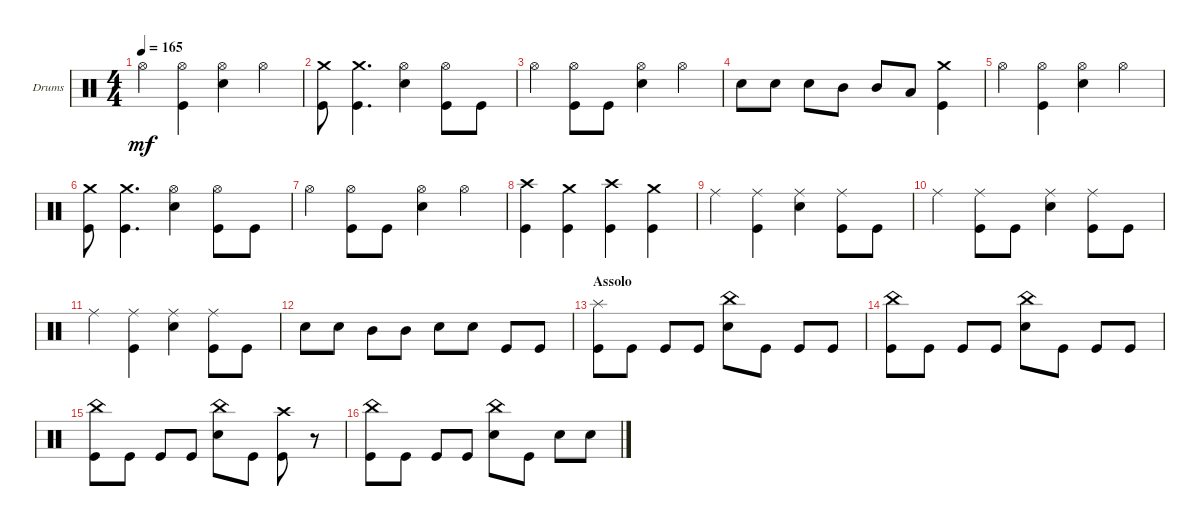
\bracketExtendMode groupsimilarinstruments
\firstSystemTrackNameOrientation horizontal
\otherSystemsTrackNameOrientation horizontal
\track ("Drums" "Drums") {solo instrument percussion}
\staff {score}
\articulation defaults
\ts (4 4)
\tempo 165
\clef neutral
\ks c "Hi-Hat (open)".4{dy mf}
("Kick (hit)" "Hi-Hat (open)").4 ("Snare (hit) 2" "Hi-Hat (open)").4 "Hi-Hat (open)".4 |
("Kick (hit)" "Crash medium (hit)").8 ("Kick (hit)" "Crash medium (hit)").4{d} ("Snare (hit) 2" "Hi-Hat (open)").4 ("Kick (hit)" "Hi-Hat (open)").8 "Kick (hit)".8 |
"Hi-Hat (open)".4 ("Kick (hit)" "Hi-Hat (open)").8 "Kick (hit)".8 ("Snare (hit) 2" "Hi-Hat (open)").4 "Hi-Hat (open)".4 |
"Snare (hit) 2".8 "Snare (hit) 2".8 "Snare (hit) 2".8 "Mid Tom (hit)".8 "Mid Tom (hit)".8 "Low Tom (hit)".8 ("Kick (hit)" "Crash medium (hit)").4 |
"Hi-Hat (open)".4 ("Kick (hit)" "Hi-Hat (open)").4 ("Snare (hit) 2" "Hi-Hat (open)").4 "Hi-Hat (open)".4 |
("Kick (hit)" "Crash medium (hit)").8 ("Kick (hit)" "Crash medium (hit)").4{d} ("Snare (hit) 2" "Hi-Hat (open)").4 ("Kick (hit)" "Hi-Hat (open)").8 "Kick (hit)".8 |
"Hi-Hat (open)".4 ("Kick (hit)" "Hi-Hat (open)").8 "Kick (hit)".8 ("Snare (hit) 2" "Hi-Hat (open)").4 "Hi-Hat (open)".4 |
("Kick (hit)" "Crash high (hit)").4 ("Kick (hit)" "Crash medium (hit)").4 ("Kick (hit)" "Crash high (hit)").4 ("Kick (hit)" "Crash medium (hit)").4 |
"Ride (middle)".4 ("Kick (hit)" "Ride (middle)").4 ("Snare (hit) 2" "Ride (middle)").4 ("Kick (hit)" "Ride (middle)").8 "Kick (hit)".8 |
"Ride (middle)".4 ("Kick (hit)" "Ride (middle)").8 "Kick (hit)".8 ("Snare (hit) 2" "Ride (middle)").4 ("Kick (hit)" "Ride (middle)").8 "Kick (hit)".8 |
"Ride (middle)".4 ("Kick (hit)" "Ride (middle)").4 ("Snare (hit) 2" "Ride (middle)").4 ("Kick (hit)" "Ride (middle)").8 "Kick (hit)".8 |
"Snare (hit) 2".8 "Snare (hit) 2".8 "Mid Tom (hit)".8 "Mid Tom (hit)".8 "Snare (hit) 2".8 "Snare (hit) 2".8 "Kick (hit)".8 "Kick (hit)".8 |
\section ("" "Assolo")
("Kick (hit)" "Splash (hit)").8 "Kick (hit)".8 "Kick (hit)".8 "Kick (hit)".8 ("Snare (hit) 2" "China (hit)").8 "Kick (hit)".8 "Kick (hit)".8 "Kick (hit)".8 |
("Kick (hit)" "China (hit)").8 "Kick (hit)".8 "Kick (hit)".8 "Kick (hit)".8 ("Snare (hit) 2" "China (hit)").8 "Kick (hit)".8 "Kick (hit)".8 "Kick (hit)".8 |
("Kick (hit)" "China (hit)").8 "Kick (hit)".8 "Kick (hit)".8 "Kick (hit)".8 ("Snare (hit) 2" "China (hit)").8 "Kick (hit)".8 ("Kick (hit)" "Crash high (hit)").8 r.8 |
("Kick (hit)" "China (hit)").8 "Kick (hit)".8 "Kick (hit)".8 "Kick (hit)".8 ("Snare (hit) 2" "China (hit)").8 "Kick (hit)".8 "Snare (hit) 2".8 "Snare (hit) 2".8
